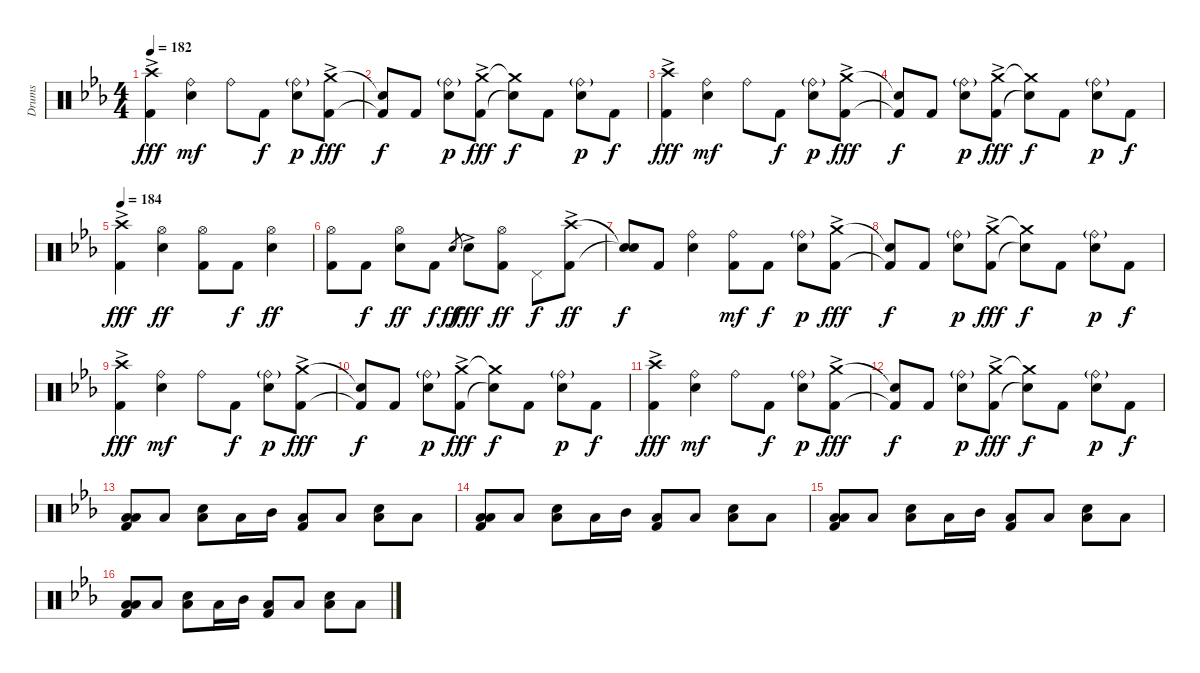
\track ("Drums" "Drums") {instrument percussion}
\staff {score}
\articulation defaults
\ts (4 4)
\tempo 182
\clef neutral
\ks eb
("Crash high (hit)"{ac} "Kick (hit) 2").4{dy fff} ("Ride (bell)" "Electric Snare (hit)").4{dy mf} "Ride (bell)".8 "Kick (hit) 2".8{dy f} ("Ride (bell)"{g} "Electric Snare (hit)").8{dy p} ("Crash medium (hit)"{ac} "Kick (hit) 2").8{dy fff} |
("Snare (hit)"{t} "Kick (hit) 2"{t}).8{dy f} "Kick (hit) 2".8 ("Ride (bell)"{g} "Electric Snare (hit)").8{dy p} ("Crash medium (hit)"{ac} "Kick (hit) 2").8{dy fff} ("Crash medium (hit)"{t} "Snare (hit)"{t}).8{dy f} "Kick (hit) 2".8 ("Ride (bell)"{g} "Electric Snare (hit)").8{dy p} "Kick (hit) 2".8{dy f} |
("Crash high (hit)"{ac} "Kick (hit) 2").4{dy fff} ("Ride (bell)" "Electric Snare (hit)").4{dy mf} "Ride (bell)".8 "Kick (hit) 2".8{dy f} ("Ride (bell)"{g} "Electric Snare (hit)").8{dy p} ("Crash medium (hit)"{ac} "Kick (hit) 2").8{dy fff} |
("Snare (hit)"{t} "Kick (hit) 2"{t}).8{dy f} "Kick (hit) 2".8 ("Ride (bell)"{g} "Electric Snare (hit)").8{dy p} ("Crash medium (hit)"{ac} "Kick (hit) 2").8{dy fff} ("Crash medium (hit)"{t} "Snare (hit)"{t}).8{dy f} "Kick (hit) 2".8 ("Ride (bell)"{g} "Electric Snare (hit)").8{dy p} "Kick (hit) 2".8{dy f} |
\tempo 184
("Crash high (hit)"{ac} "Kick (hit) 2").4{dy fff} ("Hi-Hat (open)" "Electric Snare (hit)").4{dy ff} ("Hi-Hat (open)" "Kick (hit) 2").8 "Kick (hit) 2".8{dy f} ("Hi-Hat (open)" "Electric Snare (hit)").4{dy ff} |
("Hi-Hat (open)" "Kick (hit) 2").8 "Kick (hit) 2".8{dy f} ("Hi-Hat (open)" "Electric Snare (hit)").8{dy ff} "Kick (hit) 2".8{dy f} "Electric Snare (hit)".8{gr dy ff} "Electric Snare (hit)"{ac}.8{dy fff} ("Hi-Hat (open)" "Kick (hit) 2").8{dy ff} "Pedal Hi-Hat (hit)".8{dy f} ("Crash high (hit)"{ac} "Kick (hit) 2").8{dy ff} |
("Snare (hit)"{t} "Snare (hit)"{t}).8{dy f} "Kick (hit) 2".8 ("Ride (bell)" "Electric Snare (hit)").4 ("Ride (bell)" "Kick (hit) 2").8{dy mf} "Kick (hit) 2".8{dy f} ("Ride (bell)"{g} "Electric Snare (hit)").8{dy p} ("Crash medium (hit)"{ac} "Kick (hit) 2").8{dy fff} |
("Snare (hit)"{t} "Kick (hit) 2"{t}).8{dy f} "Kick (hit) 2".8 ("Ride (bell)"{g} "Electric Snare (hit)").8{dy p} ("Crash medium (hit)"{ac} "Kick (hit) 2").8{dy fff} ("Crash medium (hit)"{t} "Snare (hit)"{t}).8{dy f} "Kick (hit) 2".8 ("Ride (bell)"{g} "Electric Snare (hit)").8{dy p} "Kick (hit) 2".8{dy f} |
("Crash high (hit)"{ac} "Kick (hit) 2").4{dy fff} ("Ride (bell)" "Electric Snare (hit)").4{dy mf} "Ride (bell)".8 "Kick (hit) 2".8{dy f} ("Ride (bell)"{g} "Electric Snare (hit)").8{dy p} ("Crash medium (hit)"{ac} "Kick (hit) 2").8{dy fff} |
("Snare (hit)"{t} "Kick (hit) 2"{t}).8{dy f} "Kick (hit) 2".8 ("Ride (bell)"{g} "Electric Snare (hit)").8{dy p} ("Crash medium (hit)"{ac} "Kick (hit) 2").8{dy fff} ("Crash medium (hit)"{t} "Snare (hit)"{t}).8{dy f} "Kick (hit) 2".8 ("Ride (bell)"{g} "Electric Snare (hit)").8{dy p} "Kick (hit) 2".8{dy f} |
("Crash high (hit)"{ac} "Kick (hit) 2").4{dy fff} ("Ride (bell)" "Electric Snare (hit)").4{dy mf} "Ride (bell)".8 "Kick (hit) 2".8{dy f} ("Ride (bell)"{g} "Electric Snare (hit)").8{dy p} ("Crash medium (hit)"{ac} "Kick (hit) 2").8{dy fff} |
("Snare (hit)"{t} "Kick (hit) 2"{t}).8{dy f} "Kick (hit) 2".8 ("Ride (bell)"{g} "Electric Snare (hit)").8{dy p} ("Crash medium (hit)"{ac} "Kick (hit) 2").8{dy fff} ("Crash medium (hit)"{t} "Snare (hit)"{t}).8{dy f} "Kick (hit) 2".8 ("Ride (bell)"{g} "Electric Snare (hit)").8{dy p} "Kick (hit) 2".8{dy f} |
("Low Tom (hit)" "Low Floor Tom (hit)" "Kick (hit) 2").8 "Low Floor Tom (hit)".8 ("Electric Snare (hit)" "Low Floor Tom (hit)").8 "Low Floor Tom (hit)".16 "Mid Tom (hit)".16 ("Low Floor Tom (hit)" "Kick (hit) 2").8 "Low Floor Tom (hit)".8 ("Electric Snare (hit)" "Low Floor Tom (hit)").8 "Low Floor Tom (hit)".8 |
("Low Tom (hit)" "Low Floor Tom (hit)" "Kick (hit) 2").8 "Low Floor Tom (hit)".8 ("Electric Snare (hit)" "Low Floor Tom (hit)").8 "Low Floor Tom (hit)".16 "Mid Tom (hit)".16 ("Low Floor Tom (hit)" "Kick (hit) 2").8 "Low Floor Tom (hit)".8 ("Electric Snare (hit)" "Low Floor Tom (hit)").8 "Low Floor Tom (hit)".8 |
("Low Tom (hit)" "Low Floor Tom (hit)" "Kick (hit) 2").8 "Low Floor Tom (hit)".8 ("Electric Snare (hit)" "Low Floor Tom (hit)").8 "Low Floor Tom (hit)".16 "Mid Tom (hit)".16 ("Low Floor Tom (hit)" "Kick (hit) 2").8 "Low Floor Tom (hit)".8 ("Electric Snare (hit)" "Low Floor Tom (hit)").8 "Low Floor Tom (hit)".8 |
("Low Tom (hit)" "Low Floor Tom (hit)" "Kick (hit) 2").8 "Low Floor Tom (hit)".8 ("Electric Snare (hit)" "Low Floor Tom (hit)").8 "Low Floor Tom (hit)".16 "Mid Tom (hit)".16 ("Low Floor Tom (hit)" "Kick (hit) 2").8 "Low Floor Tom (hit)".8 ("Electric Snare (hit)" "Low Floor Tom (hit)").8 "Low Floor Tom (hit)".8
